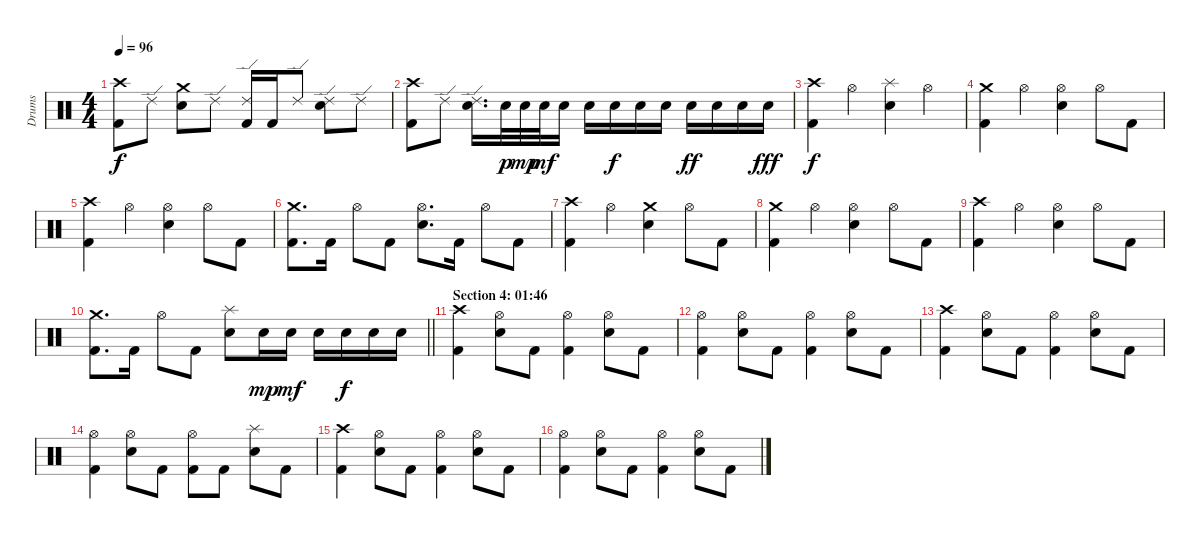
\track ("Drums" "Drums") {instrument percussion}
\staff {score}
\articulation defaults
\ts (4 4)
\tempo 96
\clef neutral
\ks c
("Crash high (hit)" "Kick (hit) 2").8{dy f} "Ride (edge) 2".8 ("Crash medium (hit)" "Electric Snare (hit)").8 "Ride (edge) 2".8 ("Ride (edge) 2" "Kick (hit) 2").16 "Kick (hit) 2".16 "Ride (edge) 2".8 ("Ride (edge) 2" "Electric Snare (hit)").8 "Ride (edge) 2".8 |
("Crash high (hit)" "Kick (hit) 2").8 "Ride (edge) 2".8 ("Ride (edge) 2" "Electric Snare (hit)").16{d} "Electric Snare (hit)".32{dy p} "Electric Snare (hit)".32{dy mp} "Electric Snare (hit)".32{dy mf} "Electric Snare (hit)".16 "Electric Snare (hit)".16 "Electric Snare (hit)".16{dy f} "Electric Snare (hit)".16 "Electric Snare (hit)".16 "Electric Snare (hit)".16{dy ff} "Electric Snare (hit)".16 "Electric Snare (hit)".16 "Electric Snare (hit)".16{dy fff} |
("Crash high (hit)" "Kick (hit) 2").4{dy f} "Hi-Hat (open)".4 ("Splash (hit)" "Electric Snare (hit)").4 "Hi-Hat (open)".4 |
("Crash medium (hit)" "Kick (hit) 2").4 "Hi-Hat (open)".4 ("Hi-Hat (open)" "Electric Snare (hit)").4 "Hi-Hat (open)".8 "Kick (hit) 2".8 |
("Crash high (hit)" "Kick (hit) 2").4 "Hi-Hat (open)".4 ("Hi-Hat (open)" "Electric Snare (hit)").4 "Hi-Hat (open)".8 "Kick (hit) 2".8 |
("Crash medium (hit)" "Kick (hit) 2").8{d} "Kick (hit) 2".16 "Hi-Hat (open)".8 "Kick (hit) 2".8 ("Hi-Hat (open)" "Electric Snare (hit)").8{d} "Kick (hit) 2".16 "Hi-Hat (open)".8 "Kick (hit) 2".8 |
("Crash high (hit)" "Kick (hit) 2").4 "Hi-Hat (open)".4 ("Crash medium (hit)" "Electric Snare (hit)").4 "Hi-Hat (open)".8 "Kick (hit) 2".8 |
("Crash medium (hit)" "Kick (hit) 2").4 "Hi-Hat (open)".4 ("Hi-Hat (open)" "Electric Snare (hit)").4 "Hi-Hat (open)".8 "Kick (hit) 2".8 |
("Crash high (hit)" "Kick (hit) 2").4 "Hi-Hat (open)".4 ("Hi-Hat (open)" "Electric Snare (hit)").4 "Hi-Hat (open)".8 "Kick (hit) 2".8 |
\barLineRight lightlight
("Crash medium (hit)" "Kick (hit) 2").8{d} "Kick (hit) 2".16 "Hi-Hat (open)".8 "Kick (hit) 2".8 ("Splash (hit)" "Electric Snare (hit)").8 "Electric Snare (hit)".16{dy mp} "Electric Snare (hit)".16{dy mf} "Electric Snare (hit)".16 "Electric Snare (hit)".16{dy f} "Electric Snare (hit)".16 "Electric Snare (hit)".16 |
\section ("" "Section 4: 01:46")
("Crash high (hit)" "Kick (hit) 2").4 ("Hi-Hat (open)" "Electric Snare (hit)").8 "Kick (hit) 2".8 ("Hi-Hat (open)" "Kick (hit) 2").4 ("Hi-Hat (open)" "Electric Snare (hit)").8 "Kick (hit) 2".8 |
("Hi-Hat (open)" "Kick (hit) 2").4 ("Hi-Hat (open)" "Electric Snare (hit)").8 "Kick (hit) 2".8 ("Hi-Hat (open)" "Kick (hit) 2").4 ("Hi-Hat (open)" "Electric Snare (hit)").8 "Kick (hit) 2".8 |
("Crash high (hit)" "Kick (hit) 2").4 ("Hi-Hat (open)" "Electric Snare (hit)").8 "Kick (hit) 2".8 ("Hi-Hat (open)" "Kick (hit) 2").4 ("Hi-Hat (open)" "Electric Snare (hit)").8 "Kick (hit) 2".8 |
("Hi-Hat (open)" "Kick (hit) 2").4 ("Hi-Hat (open)" "Electric Snare (hit)").8 "Kick (hit) 2".8 ("Hi-Hat (open)" "Kick (hit) 2").8 "Kick (hit) 2".8 ("Splash (hit)" "Electric Snare (hit)").8 "Kick (hit) 2".8 |
("Crash high (hit)" "Kick (hit) 2").4 ("Hi-Hat (open)" "Electric Snare (hit)").8 "Kick (hit) 2".8 ("Hi-Hat (open)" "Kick (hit) 2").4 ("Hi-Hat (open)" "Electric Snare (hit)").8 "Kick (hit) 2".8 |
("Hi-Hat (open)" "Kick (hit) 2").4 ("Hi-Hat (open)" "Electric Snare (hit)").8 "Kick (hit) 2".8 ("Hi-Hat (open)" "Kick (hit) 2").4 ("Hi-Hat (open)" "Electric Snare (hit)").8 "Kick (hit) 2".8
